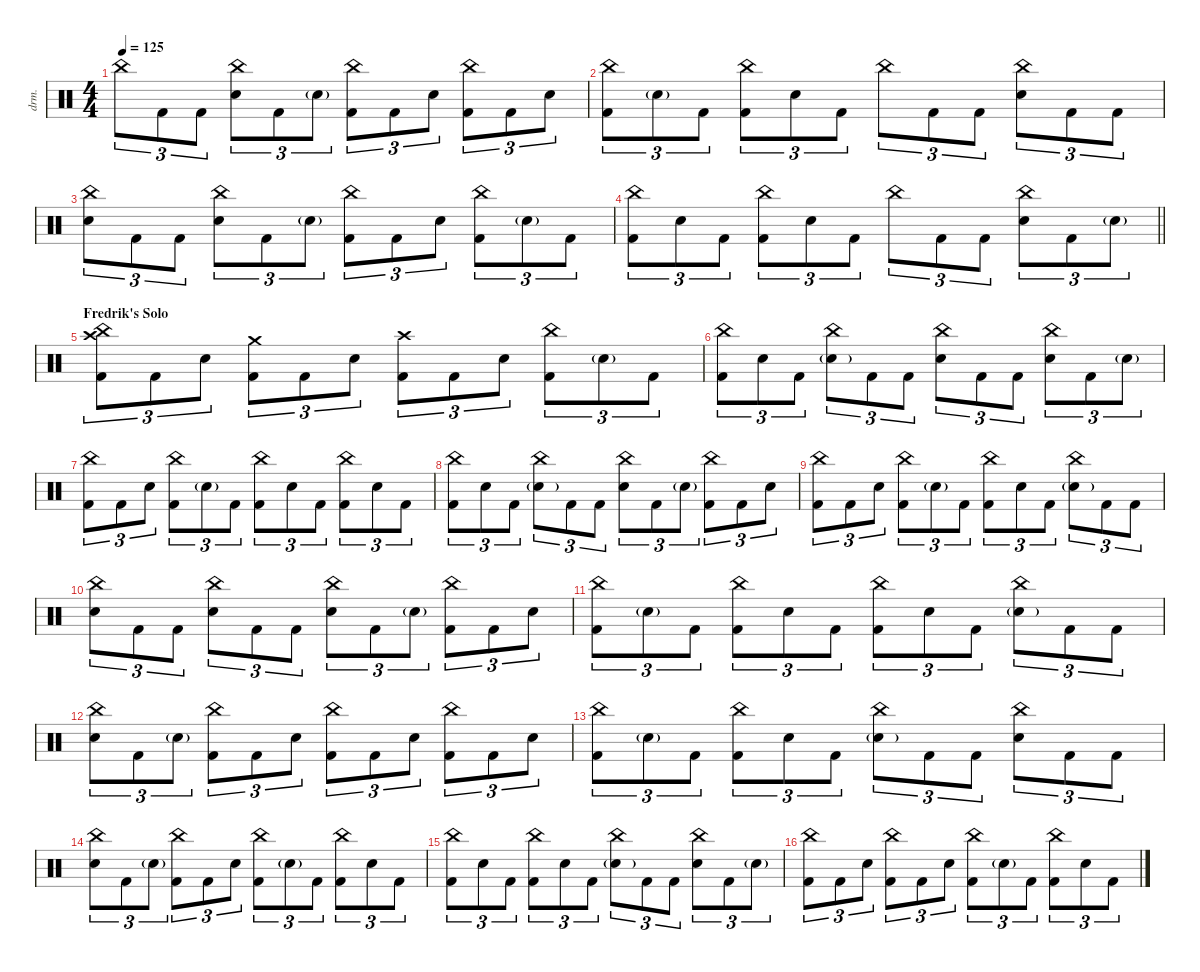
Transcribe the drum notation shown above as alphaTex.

\defaultSystemsLayout 4
\hideDynamics
\bracketExtendMode nobrackets
\track ("DRUMS (Thomas Haake)" "drm.") {instrument percussion}
\staff {score}
\articulation defaults
\ts (4 4)
\tempo 125
\clef neutral
\ks c "China (hit)".8{tu (3 2) dy f} "Kick (hit) 2".8{tu (3 2)} "Kick (hit) 2".8{tu (3 2)}
("China (hit)" "Snare (hit) 2").8{tu (3 2)} "Kick (hit) 2".8{tu (3 2)} "Snare (hit) 2"{g}.8{tu (3 2) dy p} ("China (hit)" "Kick (hit) 2").8{tu (3 2) dy f} "Kick (hit) 2".8{tu (3 2)} "Snare (hit) 2".8{tu (3 2)} ("China (hit)" "Kick (hit) 2").8{tu (3 2)} "Kick (hit) 2".8{tu (3 2)} "Snare (hit) 2".8{tu (3 2)} |
("China (hit)" "Kick (hit) 2").8{tu (3 2)} "Snare (hit) 2"{g}.8{tu (3 2) dy p} "Kick (hit) 2".8{tu (3 2) dy f} ("China (hit)" "Kick (hit) 2").8{tu (3 2)} "Snare (hit) 2".8{tu (3 2)} "Kick (hit) 2".8{tu (3 2)} "China (hit)".8{tu (3 2)} "Kick (hit) 2".8{tu (3 2)} "Kick (hit) 2".8{tu (3 2)} ("China (hit)" "Snare (hit) 2").8{tu (3 2)} "Kick (hit) 2".8{tu (3 2)} "Kick (hit) 2".8{tu (3 2)} |
("China (hit)" "Snare (hit) 2").8{tu (3 2)} "Kick (hit) 2".8{tu (3 2)} "Kick (hit) 2".8{tu (3 2)} ("China (hit)" "Snare (hit) 2").8{tu (3 2)} "Kick (hit) 2".8{tu (3 2)} "Snare (hit) 2"{g}.8{tu (3 2) dy p} ("China (hit)" "Kick (hit) 2").8{tu (3 2) dy f} "Kick (hit) 2".8{tu (3 2)} "Snare (hit) 2".8{tu (3 2)} ("China (hit)" "Kick (hit) 2").8{tu (3 2)} "Snare (hit) 2"{g}.8{tu (3 2) dy p} "Kick (hit) 2".8{tu (3 2) dy f} |
\barLineRight lightlight
("China (hit)" "Kick (hit) 2").8{tu (3 2)} "Snare (hit) 2".8{tu (3 2)} "Kick (hit) 2".8{tu (3 2)} ("China (hit)" "Kick (hit) 2").8{tu (3 2)} "Snare (hit) 2".8{tu (3 2)} "Kick (hit) 2".8{tu (3 2)} "China (hit)".8{tu (3 2)} "Kick (hit) 2".8{tu (3 2)} "Kick (hit) 2".8{tu (3 2)} ("China (hit)" "Snare (hit) 2").8{tu (3 2)} "Kick (hit) 2".8{tu (3 2)} "Snare (hit) 2"{g}.8{tu (3 2) dy p} |
\section ("" "Fredrik's Solo")
("Crash high (hit)" "China (hit)" "Kick (hit) 2").8{tu (3 2) dy f} "Kick (hit) 2".8{tu (3 2)} "Snare (hit) 2".8{tu (3 2)} ("Crash medium (hit)" "Kick (hit) 2").8{tu (3 2)} "Kick (hit) 2".8{tu (3 2)} "Snare (hit) 2".8{tu (3 2)} ("Crash high (hit)" "Kick (hit) 2").8{tu (3 2)} "Kick (hit) 2".8{tu (3 2)} "Snare (hit) 2".8{tu (3 2)} ("China (hit)" "Kick (hit) 2").8{tu (3 2)} "Snare (hit) 2"{g}.8{tu (3 2) dy p} "Kick (hit) 2".8{tu (3 2) dy f} |
("China (hit)" "Kick (hit) 2").8{tu (3 2)} "Snare (hit) 2".8{tu (3 2)} "Kick (hit) 2".8{tu (3 2)} ("China (hit)" "Snare (hit) 2"{g}).8{tu (3 2)} "Kick (hit) 2".8{tu (3 2)} "Kick (hit) 2".8{tu (3 2)} ("China (hit)" "Snare (hit) 2").8{tu (3 2)} "Kick (hit) 2".8{tu (3 2)} "Kick (hit) 2".8{tu (3 2)} ("China (hit)" "Snare (hit) 2").8{tu (3 2)} "Kick (hit) 2".8{tu (3 2)} "Snare (hit) 2"{g}.8{tu (3 2) dy p} |
("China (hit)" "Kick (hit) 2").8{tu (3 2) dy f} "Kick (hit) 2".8{tu (3 2)} "Snare (hit) 2".8{tu (3 2)} ("China (hit)" "Kick (hit) 2").8{tu (3 2)} "Snare (hit) 2"{g}.8{tu (3 2) dy p} "Kick (hit) 2".8{tu (3 2) dy f} ("China (hit)" "Kick (hit) 2").8{tu (3 2)} "Snare (hit) 2".8{tu (3 2)} "Kick (hit) 2".8{tu (3 2)} ("China (hit)" "Kick (hit) 2").8{tu (3 2)} "Snare (hit) 2".8{tu (3 2)} "Kick (hit) 2".8{tu (3 2)} |
("China (hit)" "Kick (hit) 2").8{tu (3 2)} "Snare (hit) 2".8{tu (3 2)} "Kick (hit) 2".8{tu (3 2)} ("China (hit)" "Snare (hit) 2"{g}).8{tu (3 2)} "Kick (hit) 2".8{tu (3 2)} "Kick (hit) 2".8{tu (3 2)} ("China (hit)" "Snare (hit) 2").8{tu (3 2)} "Kick (hit) 2".8{tu (3 2)} "Snare (hit) 2"{g}.8{tu (3 2) dy p} ("China (hit)" "Kick (hit) 2").8{tu (3 2) dy f} "Kick (hit) 2".8{tu (3 2)} "Snare (hit) 2".8{tu (3 2)} |
("China (hit)" "Kick (hit) 2").8{tu (3 2)} "Kick (hit) 2".8{tu (3 2)} "Snare (hit) 2".8{tu (3 2)} ("China (hit)" "Kick (hit) 2").8{tu (3 2)} "Snare (hit) 2"{g}.8{tu (3 2) dy p} "Kick (hit) 2".8{tu (3 2) dy f} ("China (hit)" "Kick (hit) 2").8{tu (3 2)} "Snare (hit) 2".8{tu (3 2)} "Kick (hit) 2".8{tu (3 2)} ("China (hit)" "Snare (hit) 2"{g}).8{tu (3 2)} "Kick (hit) 2".8{tu (3 2)} "Kick (hit) 2".8{tu (3 2)} |
("China (hit)" "Snare (hit) 2").8{tu (3 2)} "Kick (hit) 2".8{tu (3 2)} "Kick (hit) 2".8{tu (3 2)} ("China (hit)" "Snare (hit) 2").8{tu (3 2)} "Kick (hit) 2".8{tu (3 2)} "Kick (hit) 2".8{tu (3 2)} ("China (hit)" "Snare (hit) 2").8{tu (3 2)} "Kick (hit) 2".8{tu (3 2)} "Snare (hit) 2"{g}.8{tu (3 2) dy p} ("China (hit)" "Kick (hit) 2").8{tu (3 2) dy f} "Kick (hit) 2".8{tu (3 2)} "Snare (hit) 2".8{tu (3 2)} |
("China (hit)" "Kick (hit) 2").8{tu (3 2)} "Snare (hit) 2"{g}.8{tu (3 2) dy p} "Kick (hit) 2".8{tu (3 2) dy f} ("China (hit)" "Kick (hit) 2").8{tu (3 2)} "Snare (hit) 2".8{tu (3 2)} "Kick (hit) 2".8{tu (3 2)} ("China (hit)" "Kick (hit) 2").8{tu (3 2)} "Snare (hit) 2".8{tu (3 2)} "Kick (hit) 2".8{tu (3 2)} ("China (hit)" "Snare (hit) 2"{g}).8{tu (3 2)} "Kick (hit) 2".8{tu (3 2)} "Kick (hit) 2".8{tu (3 2)} |
("China (hit)" "Snare (hit) 2").8{tu (3 2)} "Kick (hit) 2".8{tu (3 2)} "Snare (hit) 2"{g}.8{tu (3 2) dy p} ("China (hit)" "Kick (hit) 2").8{tu (3 2) dy f} "Kick (hit) 2".8{tu (3 2)} "Snare (hit) 2".8{tu (3 2)} ("China (hit)" "Kick (hit) 2").8{tu (3 2)} "Kick (hit) 2".8{tu (3 2)} "Snare (hit) 2".8{tu (3 2)} ("China (hit)" "Kick (hit) 2").8{tu (3 2)} "Kick (hit) 2".8{tu (3 2)} "Snare (hit) 2".8{tu (3 2)} |
("China (hit)" "Kick (hit) 2").8{tu (3 2)} "Snare (hit) 2"{g}.8{tu (3 2) dy p} "Kick (hit) 2".8{tu (3 2) dy f} ("China (hit)" "Kick (hit) 2").8{tu (3 2)} "Snare (hit) 2".8{tu (3 2)} "Kick (hit) 2".8{tu (3 2)} ("China (hit)" "Snare (hit) 2"{g}).8{tu (3 2)} "Kick (hit) 2".8{tu (3 2)} "Kick (hit) 2".8{tu (3 2)} ("China (hit)" "Snare (hit) 2").8{tu (3 2)} "Kick (hit) 2".8{tu (3 2)} "Kick (hit) 2".8{tu (3 2)} |
("China (hit)" "Snare (hit) 2").8{tu (3 2)} "Kick (hit) 2".8{tu (3 2)} "Snare (hit) 2"{g}.8{tu (3 2) dy p} ("China (hit)" "Kick (hit) 2").8{tu (3 2) dy f} "Kick (hit) 2".8{tu (3 2)} "Snare (hit) 2".8{tu (3 2)} ("China (hit)" "Kick (hit) 2").8{tu (3 2)} "Snare (hit) 2"{g}.8{tu (3 2) dy p} "Kick (hit) 2".8{tu (3 2) dy f} ("China (hit)" "Kick (hit) 2").8{tu (3 2)} "Snare (hit) 2".8{tu (3 2)} "Kick (hit) 2".8{tu (3 2)} |
("China (hit)" "Kick (hit) 2").8{tu (3 2)} "Snare (hit) 2".8{tu (3 2)} "Kick (hit) 2".8{tu (3 2)} ("China (hit)" "Kick (hit) 2").8{tu (3 2)} "Snare (hit) 2".8{tu (3 2)} "Kick (hit) 2".8{tu (3 2)} ("China (hit)" "Snare (hit) 2"{g}).8{tu (3 2)} "Kick (hit) 2".8{tu (3 2)} "Kick (hit) 2".8{tu (3 2)} ("China (hit)" "Snare (hit) 2").8{tu (3 2)} "Kick (hit) 2".8{tu (3 2)} "Snare (hit) 2"{g}.8{tu (3 2) dy p} |
("China (hit)" "Kick (hit) 2").8{tu (3 2) dy f} "Kick (hit) 2".8{tu (3 2)} "Snare (hit) 2".8{tu (3 2)} ("China (hit)" "Kick (hit) 2").8{tu (3 2)} "Kick (hit) 2".8{tu (3 2)} "Snare (hit) 2".8{tu (3 2)} ("China (hit)" "Kick (hit) 2").8{tu (3 2)} "Snare (hit) 2"{g}.8{tu (3 2) dy p} "Kick (hit) 2".8{tu (3 2) dy f} ("China (hit)" "Kick (hit) 2").8{tu (3 2)} "Snare (hit) 2".8{tu (3 2)} "Kick (hit) 2".8{tu (3 2)}
